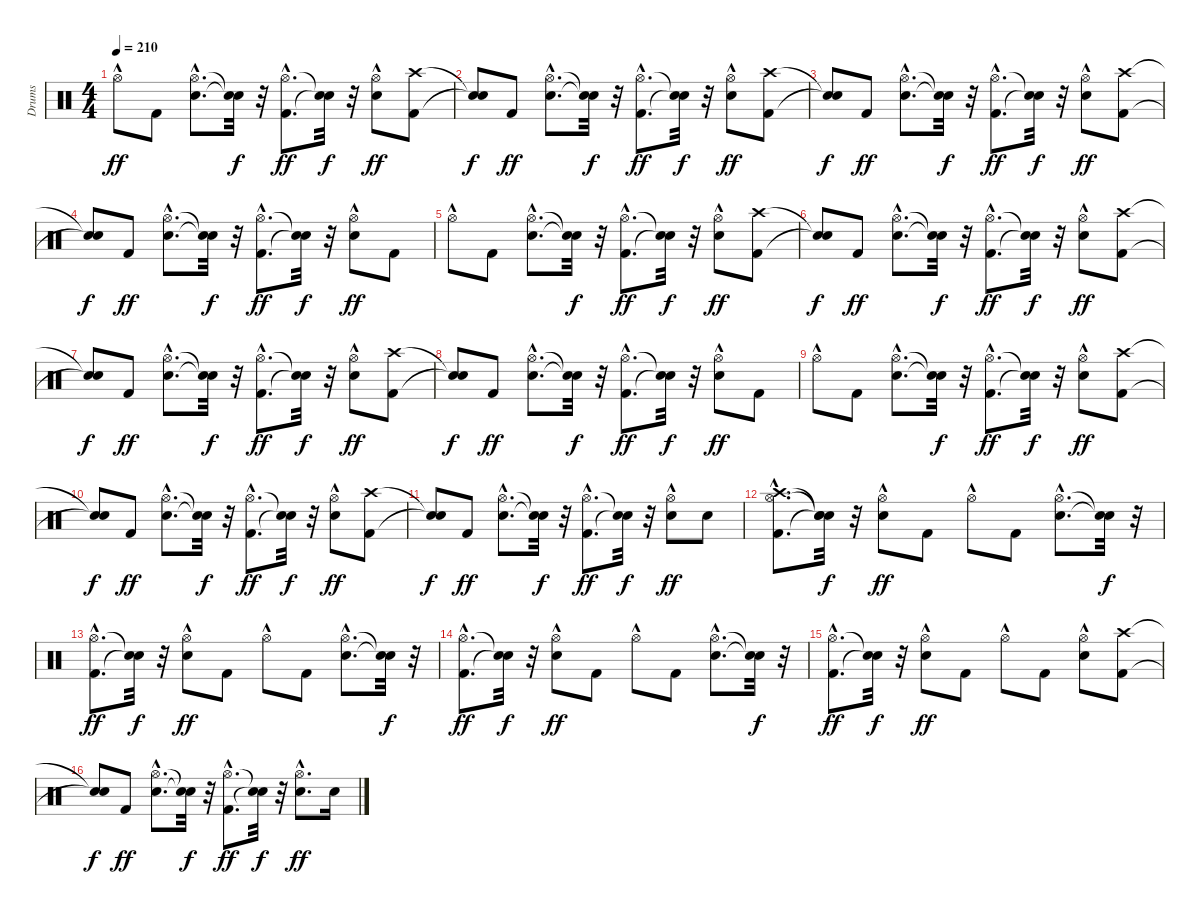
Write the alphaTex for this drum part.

\track ("Drums" "Drums") {instrument percussion}
\staff {score}
\articulation defaults
\ts (4 4)
\tempo 210
\clef neutral
\ks c "Hi-Hat (open)"{hac}.8{dy ff} "Kick (hit) 2".8
("Snare (hit) 2"{hac} "Hi-Hat (open)"{hac}).8{d} ("Snare (hit)"{t} "Snare (hit)"{t}).32{dy f} r.32 ("Kick (hit) 2"{hac} "Hi-Hat (open)"{hac}).8{d dy ff} ("Snare (hit)"{t} "Snare (hit)"{t}).32{dy f} r.32 ("Snare (hit) 2" "Hi-Hat (open)"{hac}).8{dy ff} ("Kick (hit) 2" "Crash high (hit)").8 |
("Snare (hit)"{t} "Snare (hit)"{t}).8{dy f} "Kick (hit) 2".8{dy ff} ("Snare (hit) 2"{hac} "Hi-Hat (open)"{hac}).8{d} ("Snare (hit)"{t} "Snare (hit)"{t}).32{dy f} r.32 ("Kick (hit) 2"{hac} "Hi-Hat (open)"{hac}).8{d dy ff} ("Snare (hit)"{t} "Snare (hit)"{t}).32{dy f} r.32 ("Snare (hit) 2" "Hi-Hat (open)"{hac}).8{dy ff} ("Kick (hit) 2" "Crash high (hit)").8 |
("Snare (hit)"{t} "Snare (hit)"{t}).8{dy f} "Kick (hit) 2".8{dy ff} ("Snare (hit) 2"{hac} "Hi-Hat (open)"{hac}).8{d} ("Snare (hit)"{t} "Snare (hit)"{t}).32{dy f} r.32 ("Kick (hit) 2"{hac} "Hi-Hat (open)"{hac}).8{d dy ff} ("Snare (hit)"{t} "Snare (hit)"{t}).32{dy f} r.32 ("Snare (hit) 2" "Hi-Hat (open)"{hac}).8{dy ff} ("Kick (hit) 2" "Crash high (hit)").8 |
("Snare (hit)"{t} "Snare (hit)"{t}).8{dy f} "Kick (hit) 2".8{dy ff} ("Snare (hit) 2"{hac} "Hi-Hat (open)"{hac}).8{d} ("Snare (hit)"{t} "Snare (hit)"{t}).32{dy f} r.32 ("Kick (hit) 2"{hac} "Hi-Hat (open)"{hac}).8{d dy ff} ("Snare (hit)"{t} "Snare (hit)"{t}).32{dy f} r.32 ("Snare (hit) 2" "Hi-Hat (open)"{hac}).8{dy ff} "Kick (hit) 2".8 |
"Hi-Hat (open)"{hac}.8 "Kick (hit) 2".8 ("Snare (hit) 2"{hac} "Hi-Hat (open)"{hac}).8{d} ("Snare (hit)"{t} "Snare (hit)"{t}).32{dy f} r.32 ("Kick (hit) 2"{hac} "Hi-Hat (open)"{hac}).8{d dy ff} ("Snare (hit)"{t} "Snare (hit)"{t}).32{dy f} r.32 ("Snare (hit) 2" "Hi-Hat (open)"{hac}).8{dy ff} ("Kick (hit) 2" "Crash high (hit)").8 |
("Snare (hit)"{t} "Snare (hit)"{t}).8{dy f} "Kick (hit) 2".8{dy ff} ("Snare (hit) 2"{hac} "Hi-Hat (open)"{hac}).8{d} ("Snare (hit)"{t} "Snare (hit)"{t}).32{dy f} r.32 ("Kick (hit) 2"{hac} "Hi-Hat (open)"{hac}).8{d dy ff} ("Snare (hit)"{t} "Snare (hit)"{t}).32{dy f} r.32 ("Snare (hit) 2" "Hi-Hat (open)"{hac}).8{dy ff} ("Kick (hit) 2" "Crash high (hit)").8 |
("Snare (hit)"{t} "Snare (hit)"{t}).8{dy f} "Kick (hit) 2".8{dy ff} ("Snare (hit) 2"{hac} "Hi-Hat (open)"{hac}).8{d} ("Snare (hit)"{t} "Snare (hit)"{t}).32{dy f} r.32 ("Kick (hit) 2"{hac} "Hi-Hat (open)"{hac}).8{d dy ff} ("Snare (hit)"{t} "Snare (hit)"{t}).32{dy f} r.32 ("Snare (hit) 2" "Hi-Hat (open)"{hac}).8{dy ff} ("Kick (hit) 2" "Crash high (hit)").8 |
("Snare (hit)"{t} "Snare (hit)"{t}).8{dy f} "Kick (hit) 2".8{dy ff} ("Snare (hit) 2"{hac} "Hi-Hat (open)"{hac}).8{d} ("Snare (hit)"{t} "Snare (hit)"{t}).32{dy f} r.32 ("Kick (hit) 2"{hac} "Hi-Hat (open)"{hac}).8{d dy ff} ("Snare (hit)"{t} "Snare (hit)"{t}).32{dy f} r.32 ("Snare (hit) 2" "Hi-Hat (open)"{hac}).8{dy ff} "Kick (hit) 2".8 |
"Hi-Hat (open)"{hac}.8 "Kick (hit) 2".8 ("Snare (hit) 2"{hac} "Hi-Hat (open)"{hac}).8{d} ("Snare (hit)"{t} "Snare (hit)"{t}).32{dy f} r.32 ("Kick (hit) 2"{hac} "Hi-Hat (open)"{hac}).8{d dy ff} ("Snare (hit)"{t} "Snare (hit)"{t}).32{dy f} r.32 ("Snare (hit) 2" "Hi-Hat (open)"{hac}).8{dy ff} ("Kick (hit) 2" "Crash high (hit)").8 |
("Snare (hit)"{t} "Snare (hit)"{t}).8{dy f} "Kick (hit) 2".8{dy ff} ("Snare (hit) 2"{hac} "Hi-Hat (open)"{hac}).8{d} ("Snare (hit)"{t} "Snare (hit)"{t}).32{dy f} r.32 ("Kick (hit) 2"{hac} "Hi-Hat (open)"{hac}).8{d dy ff} ("Snare (hit)"{t} "Snare (hit)"{t}).32{dy f} r.32 ("Snare (hit) 2" "Hi-Hat (open)"{hac}).8{dy ff} ("Kick (hit) 2" "Crash high (hit)").8 |
("Snare (hit)"{t} "Snare (hit)"{t}).8{dy f} "Kick (hit) 2".8{dy ff} ("Snare (hit) 2"{hac} "Hi-Hat (open)"{hac}).8{d} ("Snare (hit)"{t} "Snare (hit)"{t}).32{dy f} r.32 ("Kick (hit) 2"{hac} "Hi-Hat (open)"{hac}).8{d dy ff} ("Snare (hit)"{t} "Snare (hit)"{t}).32{dy f} r.32 ("Snare (hit) 2" "Hi-Hat (open)"{hac}).8{dy ff} "Snare (hit) 2".8 |
("Kick (hit) 2"{hac} "Hi-Hat (open)"{hac} "Crash high (hit)"{hac}).8{d} ("Snare (hit)"{t} "Snare (hit)"{t} "Snare (hit)"{t}).32{dy f} r.32 ("Snare (hit) 2" "Hi-Hat (open)"{hac}).8{dy ff} "Kick (hit) 2".8 "Hi-Hat (open)"{hac}.8 "Kick (hit) 2".8 ("Snare (hit) 2"{hac} "Hi-Hat (open)"{hac}).8{d} ("Snare (hit)"{t} "Snare (hit)"{t}).32{dy f} r.32 |
("Kick (hit) 2"{hac} "Hi-Hat (open)"{hac}).8{d dy ff} ("Snare (hit)"{t} "Snare (hit)"{t}).32{dy f} r.32 ("Snare (hit) 2" "Hi-Hat (open)"{hac}).8{dy ff} "Kick (hit) 2".8 "Hi-Hat (open)"{hac}.8 "Kick (hit) 2".8 ("Snare (hit) 2"{hac} "Hi-Hat (open)"{hac}).8{d} ("Snare (hit)"{t} "Snare (hit)"{t}).32{dy f} r.32 |
("Kick (hit) 2"{hac} "Hi-Hat (open)"{hac}).8{d dy ff} ("Snare (hit)"{t} "Snare (hit)"{t}).32{dy f} r.32 ("Snare (hit) 2" "Hi-Hat (open)"{hac}).8{dy ff} "Kick (hit) 2".8 "Hi-Hat (open)"{hac}.8 "Kick (hit) 2".8 ("Snare (hit) 2"{hac} "Hi-Hat (open)"{hac}).8{d} ("Snare (hit)"{t} "Snare (hit)"{t}).32{dy f} r.32 |
("Kick (hit) 2"{hac} "Hi-Hat (open)"{hac}).8{d dy ff} ("Snare (hit)"{t} "Snare (hit)"{t}).32{dy f} r.32 ("Snare (hit) 2" "Hi-Hat (open)"{hac}).8{dy ff} "Kick (hit) 2".8 "Hi-Hat (open)"{hac}.8 "Kick (hit) 2".8 ("Snare (hit) 2" "Hi-Hat (open)"{hac}).8 ("Kick (hit) 2" "Crash high (hit)").8 |
("Snare (hit)"{t} "Snare (hit)"{t}).8{dy f} "Kick (hit) 2".8{dy ff} ("Snare (hit) 2"{hac} "Hi-Hat (open)"{hac}).8{d} ("Snare (hit)"{t} "Snare (hit)"{t}).32{dy f} r.32 ("Kick (hit) 2"{hac} "Hi-Hat (open)"{hac}).8{d dy ff} ("Snare (hit)"{t} "Snare (hit)"{t}).32{dy f} r.32 ("Snare (hit) 2"{hac} "Hi-Hat (open)"{hac}).8{d dy ff} "Snare (hit) 2".16
